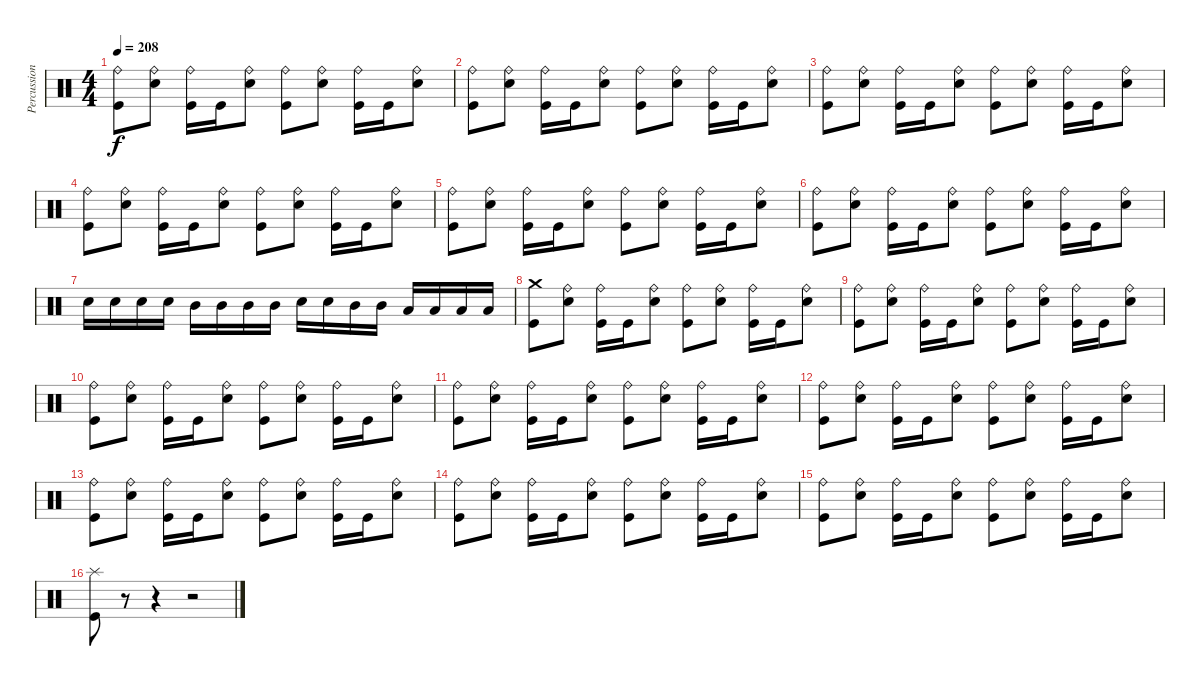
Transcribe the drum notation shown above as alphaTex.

\track ("Percussions" "Percussion") {instrument percussion}
\staff {score}
\articulation defaults
\ts (4 4)
\tempo 208
\clef neutral
\ks c
("Kick (hit)" "Ride (bell)").8{dy f} ("Electric Snare (hit)" "Ride (bell)").8 ("Kick (hit)" "Ride (bell)").16 "Kick (hit)".16 ("Electric Snare (hit)" "Ride (bell)").8 ("Kick (hit)" "Ride (bell)").8 ("Electric Snare (hit)" "Ride (bell)").8 ("Kick (hit)" "Ride (bell)").16 "Kick (hit)".16 ("Electric Snare (hit)" "Ride (bell)").8 |
("Kick (hit)" "Ride (bell)").8 ("Electric Snare (hit)" "Ride (bell)").8 ("Kick (hit)" "Ride (bell)").16 "Kick (hit)".16 ("Electric Snare (hit)" "Ride (bell)").8 ("Kick (hit)" "Ride (bell)").8 ("Electric Snare (hit)" "Ride (bell)").8 ("Kick (hit)" "Ride (bell)").16 "Kick (hit)".16 ("Electric Snare (hit)" "Ride (bell)").8 |
("Kick (hit)" "Ride (bell)").8 ("Electric Snare (hit)" "Ride (bell)").8 ("Kick (hit)" "Ride (bell)").16 "Kick (hit)".16 ("Electric Snare (hit)" "Ride (bell)").8 ("Kick (hit)" "Ride (bell)").8 ("Electric Snare (hit)" "Ride (bell)").8 ("Kick (hit)" "Ride (bell)").16 "Kick (hit)".16 ("Electric Snare (hit)" "Ride (bell)").8 |
("Kick (hit)" "Ride (bell)").8 ("Electric Snare (hit)" "Ride (bell)").8 ("Kick (hit)" "Ride (bell)").16 "Kick (hit)".16 ("Electric Snare (hit)" "Ride (bell)").8 ("Kick (hit)" "Ride (bell)").8 ("Electric Snare (hit)" "Ride (bell)").8 ("Kick (hit)" "Ride (bell)").16 "Kick (hit)".16 ("Electric Snare (hit)" "Ride (bell)").8 |
("Kick (hit)" "Ride (bell)").8 ("Electric Snare (hit)" "Ride (bell)").8 ("Kick (hit)" "Ride (bell)").16 "Kick (hit)".16 ("Electric Snare (hit)" "Ride (bell)").8 ("Kick (hit)" "Ride (bell)").8 ("Electric Snare (hit)" "Ride (bell)").8 ("Kick (hit)" "Ride (bell)").16 "Kick (hit)".16 ("Electric Snare (hit)" "Ride (bell)").8 |
("Kick (hit)" "Ride (bell)").8 ("Electric Snare (hit)" "Ride (bell)").8 ("Kick (hit)" "Ride (bell)").16 "Kick (hit)".16 ("Electric Snare (hit)" "Ride (bell)").8 ("Kick (hit)" "Ride (bell)").8 ("Electric Snare (hit)" "Ride (bell)").8 ("Kick (hit)" "Ride (bell)").16 "Kick (hit)".16 ("Electric Snare (hit)" "Ride (bell)").8 |
"Electric Snare (hit)".16 "Electric Snare (hit)".16 "Electric Snare (hit)".16 "Electric Snare (hit)".16 "Mid Tom (hit)".16 "Mid Tom (hit)".16 "Mid Tom (hit)".16 "Mid Tom (hit)".16 "Electric Snare (hit)".16 "Electric Snare (hit)".16 "Mid Tom (hit)".16 "Mid Tom (hit)".16 "Low Tom (hit)".16 "Low Tom (hit)".16 "Low Tom (hit)".16 "Low Tom (hit)".16 |
("Kick (hit)" "Crash medium (hit)").8 ("Electric Snare (hit)" "Ride (bell)").8 ("Kick (hit)" "Ride (bell)").16 "Kick (hit)".16 ("Electric Snare (hit)" "Ride (bell)").8 ("Kick (hit)" "Ride (bell)").8 ("Electric Snare (hit)" "Ride (bell)").8 ("Kick (hit)" "Ride (bell)").16 "Kick (hit)".16 ("Electric Snare (hit)" "Ride (bell)").8 |
("Kick (hit)" "Ride (bell)").8 ("Electric Snare (hit)" "Ride (bell)").8 ("Kick (hit)" "Ride (bell)").16 "Kick (hit)".16 ("Electric Snare (hit)" "Ride (bell)").8 ("Kick (hit)" "Ride (bell)").8 ("Electric Snare (hit)" "Ride (bell)").8 ("Kick (hit)" "Ride (bell)").16 "Kick (hit)".16 ("Electric Snare (hit)" "Ride (bell)").8 |
("Kick (hit)" "Ride (bell)").8 ("Electric Snare (hit)" "Ride (bell)").8 ("Kick (hit)" "Ride (bell)").16 "Kick (hit)".16 ("Electric Snare (hit)" "Ride (bell)").8 ("Kick (hit)" "Ride (bell)").8 ("Electric Snare (hit)" "Ride (bell)").8 ("Kick (hit)" "Ride (bell)").16 "Kick (hit)".16 ("Electric Snare (hit)" "Ride (bell)").8 |
("Kick (hit)" "Ride (bell)").8 ("Electric Snare (hit)" "Ride (bell)").8 ("Kick (hit)" "Ride (bell)").16 "Kick (hit)".16 ("Electric Snare (hit)" "Ride (bell)").8 ("Kick (hit)" "Ride (bell)").8 ("Electric Snare (hit)" "Ride (bell)").8 ("Kick (hit)" "Ride (bell)").16 "Kick (hit)".16 ("Electric Snare (hit)" "Ride (bell)").8 |
("Kick (hit)" "Ride (bell)").8 ("Electric Snare (hit)" "Ride (bell)").8 ("Kick (hit)" "Ride (bell)").16 "Kick (hit)".16 ("Electric Snare (hit)" "Ride (bell)").8 ("Kick (hit)" "Ride (bell)").8 ("Electric Snare (hit)" "Ride (bell)").8 ("Kick (hit)" "Ride (bell)").16 "Kick (hit)".16 ("Electric Snare (hit)" "Ride (bell)").8 |
("Kick (hit)" "Ride (bell)").8 ("Electric Snare (hit)" "Ride (bell)").8 ("Kick (hit)" "Ride (bell)").16 "Kick (hit)".16 ("Electric Snare (hit)" "Ride (bell)").8 ("Kick (hit)" "Ride (bell)").8 ("Electric Snare (hit)" "Ride (bell)").8 ("Kick (hit)" "Ride (bell)").16 "Kick (hit)".16 ("Electric Snare (hit)" "Ride (bell)").8 |
("Kick (hit)" "Ride (bell)").8 ("Electric Snare (hit)" "Ride (bell)").8 ("Kick (hit)" "Ride (bell)").16 "Kick (hit)".16 ("Electric Snare (hit)" "Ride (bell)").8 ("Kick (hit)" "Ride (bell)").8 ("Electric Snare (hit)" "Ride (bell)").8 ("Kick (hit)" "Ride (bell)").16 "Kick (hit)".16 ("Electric Snare (hit)" "Ride (bell)").8 |
("Kick (hit)" "Ride (bell)").8 ("Electric Snare (hit)" "Ride (bell)").8 ("Kick (hit)" "Ride (bell)").16 "Kick (hit)".16 ("Electric Snare (hit)" "Ride (bell)").8 ("Kick (hit)" "Ride (bell)").8 ("Electric Snare (hit)" "Ride (bell)").8 ("Kick (hit)" "Ride (bell)").16 "Kick (hit)".16 ("Electric Snare (hit)" "Ride (bell)").8 |
("Kick (hit)" "Splash (hit)").8 r.8 r.4 r.2
